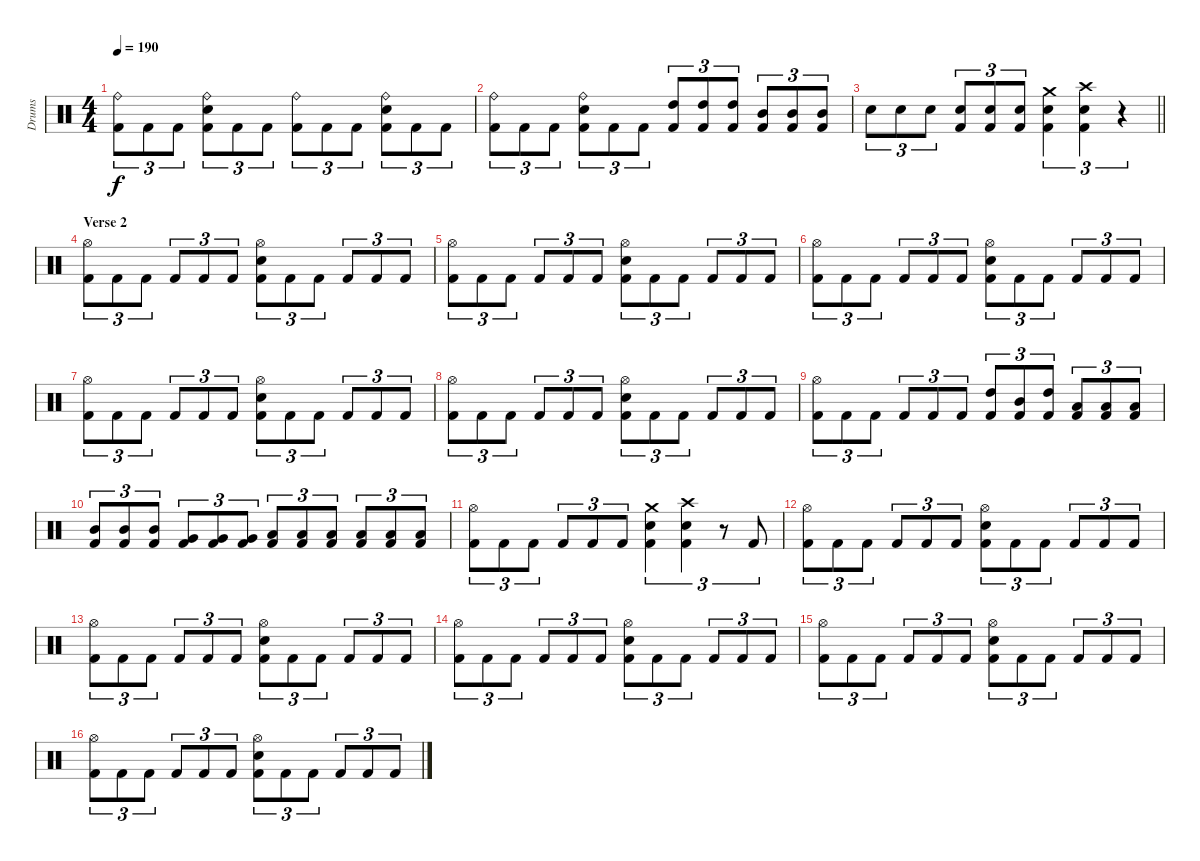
\track ("Drums" "Drums") {instrument percussion}
\staff {score}
\articulation defaults
\ts (4 4)
\tempo 190
\clef neutral
\ks c
("Ride (bell)" "Kick (hit) 2").8{tu (3 2) dy f} "Kick (hit) 2".8{tu (3 2)} "Kick (hit) 2".8{tu (3 2)} ("Ride (bell)" "Electric Snare (hit)" "Kick (hit) 2").8{tu (3 2)} "Kick (hit) 2".8{tu (3 2)} "Kick (hit) 2".8{tu (3 2)} ("Ride (bell)" "Kick (hit) 2").8{tu (3 2)} "Kick (hit) 2".8{tu (3 2)} "Kick (hit) 2".8{tu (3 2)} ("Ride (bell)" "Electric Snare (hit)" "Kick (hit) 2").8{tu (3 2)} "Kick (hit) 2".8{tu (3 2)} "Kick (hit) 2".8{tu (3 2)} |
("Ride (bell)" "Kick (hit) 2").8{tu (3 2)} "Kick (hit) 2".8{tu (3 2)} "Kick (hit) 2".8{tu (3 2)} ("Ride (bell)" "Electric Snare (hit)" "Kick (hit) 2").8{tu (3 2)} "Kick (hit) 2".8{tu (3 2)} "Kick (hit) 2".8{tu (3 2)} ("High Tom (hit)" "Kick (hit) 2").8{tu (3 2)} ("High Tom (hit)" "Kick (hit) 2").8{tu (3 2)} ("High Tom (hit)" "Kick (hit) 2").8{tu (3 2)} ("Mid Tom (hit)" "Kick (hit) 2").8{tu (3 2)} ("Mid Tom (hit)" "Kick (hit) 2").8{tu (3 2)} ("Mid Tom (hit)" "Kick (hit) 2").8{tu (3 2)} |
\barLineRight lightlight "Electric Snare (hit)".8{tu (3 2)} "Electric Snare (hit)".8{tu (3 2)} "Electric Snare (hit)".8{tu (3 2)}
("Electric Snare (hit)" "Kick (hit) 2").8{tu (3 2)} ("Electric Snare (hit)" "Kick (hit) 2").8{tu (3 2)} ("Electric Snare (hit)" "Kick (hit) 2").8{tu (3 2)} ("Crash medium (hit)" "Electric Snare (hit)" "Kick (hit) 2").4{tu (3 2)} ("Crash high (hit)" "Electric Snare (hit)" "Kick (hit) 2").4{tu (3 2)} r.4{tu (3 2)} |
\section ("" "Verse 2")
("Hi-Hat (open)" "Kick (hit) 2").8{tu (3 2)} "Kick (hit) 2".8{tu (3 2)} "Kick (hit) 2".8{tu (3 2)} "Kick (hit) 2".8{tu (3 2)} "Kick (hit) 2".8{tu (3 2)} "Kick (hit) 2".8{tu (3 2)} ("Hi-Hat (open)" "Electric Snare (hit)" "Kick (hit) 2").8{tu (3 2)} "Kick (hit) 2".8{tu (3 2)} "Kick (hit) 2".8{tu (3 2)} "Kick (hit) 2".8{tu (3 2)} "Kick (hit) 2".8{tu (3 2)} "Kick (hit) 2".8{tu (3 2)} |
("Hi-Hat (open)" "Kick (hit) 2").8{tu (3 2)} "Kick (hit) 2".8{tu (3 2)} "Kick (hit) 2".8{tu (3 2)} "Kick (hit) 2".8{tu (3 2)} "Kick (hit) 2".8{tu (3 2)} "Kick (hit) 2".8{tu (3 2)} ("Hi-Hat (open)" "Electric Snare (hit)" "Kick (hit) 2").8{tu (3 2)} "Kick (hit) 2".8{tu (3 2)} "Kick (hit) 2".8{tu (3 2)} "Kick (hit) 2".8{tu (3 2)} "Kick (hit) 2".8{tu (3 2)} "Kick (hit) 2".8{tu (3 2)} |
("Hi-Hat (open)" "Kick (hit) 2").8{tu (3 2)} "Kick (hit) 2".8{tu (3 2)} "Kick (hit) 2".8{tu (3 2)} "Kick (hit) 2".8{tu (3 2)} "Kick (hit) 2".8{tu (3 2)} "Kick (hit) 2".8{tu (3 2)} ("Hi-Hat (open)" "Electric Snare (hit)" "Kick (hit) 2").8{tu (3 2)} "Kick (hit) 2".8{tu (3 2)} "Kick (hit) 2".8{tu (3 2)} "Kick (hit) 2".8{tu (3 2)} "Kick (hit) 2".8{tu (3 2)} "Kick (hit) 2".8{tu (3 2)} |
("Hi-Hat (open)" "Kick (hit) 2").8{tu (3 2)} "Kick (hit) 2".8{tu (3 2)} "Kick (hit) 2".8{tu (3 2)} "Kick (hit) 2".8{tu (3 2)} "Kick (hit) 2".8{tu (3 2)} "Kick (hit) 2".8{tu (3 2)} ("Hi-Hat (open)" "Electric Snare (hit)" "Kick (hit) 2").8{tu (3 2)} "Kick (hit) 2".8{tu (3 2)} "Kick (hit) 2".8{tu (3 2)} "Kick (hit) 2".8{tu (3 2)} "Kick (hit) 2".8{tu (3 2)} "Kick (hit) 2".8{tu (3 2)} |
("Hi-Hat (open)" "Kick (hit) 2").8{tu (3 2)} "Kick (hit) 2".8{tu (3 2)} "Kick (hit) 2".8{tu (3 2)} "Kick (hit) 2".8{tu (3 2)} "Kick (hit) 2".8{tu (3 2)} "Kick (hit) 2".8{tu (3 2)} ("Hi-Hat (open)" "Electric Snare (hit)" "Kick (hit) 2").8{tu (3 2)} "Kick (hit) 2".8{tu (3 2)} "Kick (hit) 2".8{tu (3 2)} "Kick (hit) 2".8{tu (3 2)} "Kick (hit) 2".8{tu (3 2)} "Kick (hit) 2".8{tu (3 2)} |
("Hi-Hat (open)" "Kick (hit) 2").8{tu (3 2)} "Kick (hit) 2".8{tu (3 2)} "Kick (hit) 2".8{tu (3 2)} "Kick (hit) 2".8{tu (3 2)} "Kick (hit) 2".8{tu (3 2)} "Kick (hit) 2".8{tu (3 2)} ("High Tom (hit)" "Kick (hit) 2").8{tu (3 2)} ("Mid Tom (hit)" "Kick (hit) 2").8{tu (3 2)} ("High Tom (hit)" "Kick (hit) 2").8{tu (3 2)} ("Low Floor Tom (hit)" "Kick (hit) 2").8{tu (3 2)} ("Low Floor Tom (hit)" "Kick (hit) 2").8{tu (3 2)} ("Low Floor Tom (hit)" "Kick (hit) 2").8{tu (3 2)} |
("Mid Tom (hit)" "Kick (hit) 2").8{tu (3 2)} ("Mid Tom (hit)" "Kick (hit) 2").8{tu (3 2)} ("Mid Tom (hit)" "Kick (hit) 2").8{tu (3 2)} ("Very Low Tom (hit)" "Kick (hit) 2").8{tu (3 2)} ("Very Low Tom (hit)" "Kick (hit) 2").8{tu (3 2)} ("Very Low Tom (hit)" "Kick (hit) 2").8{tu (3 2)} ("Low Tom (hit)" "Kick (hit) 2").8{tu (3 2)} ("Low Tom (hit)" "Kick (hit) 2").8{tu (3 2)} ("Low Tom (hit)" "Kick (hit) 2").8{tu (3 2)} ("Low Floor Tom (hit)" "Kick (hit) 2").8{tu (3 2)} ("Low Floor Tom (hit)" "Kick (hit) 2").8{tu (3 2)} ("Low Floor Tom (hit)" "Kick (hit) 2").8{tu (3 2)} |
("Hi-Hat (open)" "Kick (hit) 2").8{tu (3 2)} "Kick (hit) 2".8{tu (3 2)} "Kick (hit) 2".8{tu (3 2)} "Kick (hit) 2".8{tu (3 2)} "Kick (hit) 2".8{tu (3 2)} "Kick (hit) 2".8{tu (3 2)} ("Crash medium (hit)" "Electric Snare (hit)" "Kick (hit) 2").4{tu (3 2)} ("Crash high (hit)" "Electric Snare (hit)" "Kick (hit) 2").4{tu (3 2)} r.8{tu (3 2)} "Kick (hit) 2".8{tu (3 2)} |
("Hi-Hat (open)" "Kick (hit) 2").8{tu (3 2)} "Kick (hit) 2".8{tu (3 2)} "Kick (hit) 2".8{tu (3 2)} "Kick (hit) 2".8{tu (3 2)} "Kick (hit) 2".8{tu (3 2)} "Kick (hit) 2".8{tu (3 2)} ("Hi-Hat (open)" "Electric Snare (hit)" "Kick (hit) 2").8{tu (3 2)} "Kick (hit) 2".8{tu (3 2)} "Kick (hit) 2".8{tu (3 2)} "Kick (hit) 2".8{tu (3 2)} "Kick (hit) 2".8{tu (3 2)} "Kick (hit) 2".8{tu (3 2)} |
("Hi-Hat (open)" "Kick (hit) 2").8{tu (3 2)} "Kick (hit) 2".8{tu (3 2)} "Kick (hit) 2".8{tu (3 2)} "Kick (hit) 2".8{tu (3 2)} "Kick (hit) 2".8{tu (3 2)} "Kick (hit) 2".8{tu (3 2)} ("Hi-Hat (open)" "Electric Snare (hit)" "Kick (hit) 2").8{tu (3 2)} "Kick (hit) 2".8{tu (3 2)} "Kick (hit) 2".8{tu (3 2)} "Kick (hit) 2".8{tu (3 2)} "Kick (hit) 2".8{tu (3 2)} "Kick (hit) 2".8{tu (3 2)} |
("Hi-Hat (open)" "Kick (hit) 2").8{tu (3 2)} "Kick (hit) 2".8{tu (3 2)} "Kick (hit) 2".8{tu (3 2)} "Kick (hit) 2".8{tu (3 2)} "Kick (hit) 2".8{tu (3 2)} "Kick (hit) 2".8{tu (3 2)} ("Hi-Hat (open)" "Electric Snare (hit)" "Kick (hit) 2").8{tu (3 2)} "Kick (hit) 2".8{tu (3 2)} "Kick (hit) 2".8{tu (3 2)} "Kick (hit) 2".8{tu (3 2)} "Kick (hit) 2".8{tu (3 2)} "Kick (hit) 2".8{tu (3 2)} |
("Hi-Hat (open)" "Kick (hit) 2").8{tu (3 2)} "Kick (hit) 2".8{tu (3 2)} "Kick (hit) 2".8{tu (3 2)} "Kick (hit) 2".8{tu (3 2)} "Kick (hit) 2".8{tu (3 2)} "Kick (hit) 2".8{tu (3 2)} ("Hi-Hat (open)" "Electric Snare (hit)" "Kick (hit) 2").8{tu (3 2)} "Kick (hit) 2".8{tu (3 2)} "Kick (hit) 2".8{tu (3 2)} "Kick (hit) 2".8{tu (3 2)} "Kick (hit) 2".8{tu (3 2)} "Kick (hit) 2".8{tu (3 2)} |
("Hi-Hat (open)" "Kick (hit) 2").8{tu (3 2)} "Kick (hit) 2".8{tu (3 2)} "Kick (hit) 2".8{tu (3 2)} "Kick (hit) 2".8{tu (3 2)} "Kick (hit) 2".8{tu (3 2)} "Kick (hit) 2".8{tu (3 2)} ("Hi-Hat (open)" "Electric Snare (hit)" "Kick (hit) 2").8{tu (3 2)} "Kick (hit) 2".8{tu (3 2)} "Kick (hit) 2".8{tu (3 2)} "Kick (hit) 2".8{tu (3 2)} "Kick (hit) 2".8{tu (3 2)} "Kick (hit) 2".8{tu (3 2)}
